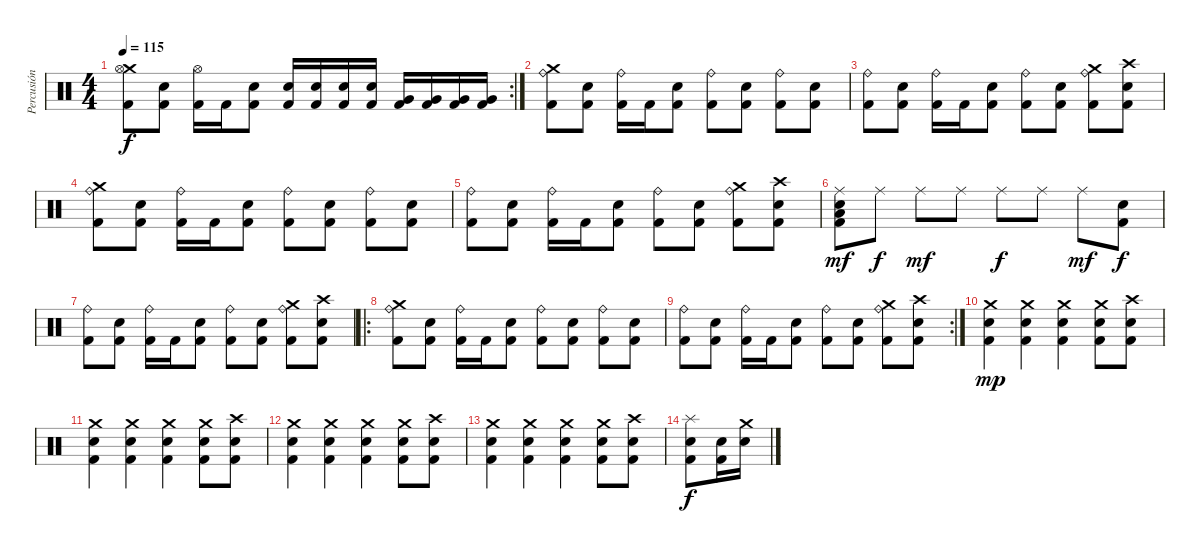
\track ("Percusión" "Percusión") {instrument percussion}
\staff {score}
\articulation defaults
\rc 2
\ts (4 4)
\tempo 115
\clef neutral
\ks c
("Crash medium (hit)" "Hi-Hat (open)" "Kick (hit) 2").8{dy f} ("Snare (hit) 2" "Kick (hit) 2").8 ("Hi-Hat (open)" "Kick (hit) 2").16 "Kick (hit) 2".16 ("Snare (hit) 2" "Kick (hit) 2").8 ("Snare (hit) 2" "Kick (hit) 2").16 ("Snare (hit) 2" "Kick (hit) 2").16 ("Snare (hit) 2" "Kick (hit) 2").16 ("Snare (hit) 2" "Kick (hit) 2").16 ("Very Low Tom (hit)" "Kick (hit) 2").16 ("Very Low Tom (hit)" "Kick (hit) 2").16 ("Very Low Tom (hit)" "Kick (hit) 2").16 ("Very Low Tom (hit)" "Kick (hit) 2").16 |
("Ride (bell)" "Crash medium (hit)" "Kick (hit) 2").8 ("Snare (hit) 2" "Kick (hit) 2").8 ("Ride (bell)" "Kick (hit) 2").16 "Kick (hit) 2".16 ("Snare (hit) 2" "Kick (hit) 2").8 ("Ride (bell)" "Kick (hit) 2").8 ("Snare (hit) 2" "Kick (hit) 2").8 ("Ride (bell)" "Kick (hit) 2").8 ("Snare (hit) 2" "Kick (hit) 2").8 |
("Ride (bell)" "Kick (hit) 2").8 ("Snare (hit) 2" "Kick (hit) 2").8 ("Ride (bell)" "Kick (hit) 2").16 "Kick (hit) 2".16 ("Snare (hit) 2" "Kick (hit) 2").8 ("Ride (bell)" "Kick (hit) 2").8 ("Snare (hit) 2" "Kick (hit) 2").8 ("Crash medium (hit)" "Ride (bell)" "Kick (hit) 2").8 ("Crash high (hit)" "Snare (hit) 2" "Kick (hit) 2").8 |
("Ride (bell)" "Crash medium (hit)" "Kick (hit) 2").8 ("Snare (hit) 2" "Kick (hit) 2").8 ("Ride (bell)" "Kick (hit) 2").16 "Kick (hit) 2".16 ("Snare (hit) 2" "Kick (hit) 2").8 ("Ride (bell)" "Kick (hit) 2").8 ("Snare (hit) 2" "Kick (hit) 2").8 ("Ride (bell)" "Kick (hit) 2").8 ("Snare (hit) 2" "Kick (hit) 2").8 |
("Ride (bell)" "Kick (hit) 2").8 ("Snare (hit) 2" "Kick (hit) 2").8 ("Ride (bell)" "Kick (hit) 2").16 "Kick (hit) 2".16 ("Snare (hit) 2" "Kick (hit) 2").8 ("Ride (bell)" "Kick (hit) 2").8 ("Snare (hit) 2" "Kick (hit) 2").8 ("Crash medium (hit)" "Ride (bell)" "Kick (hit) 2").8 ("Crash high (hit)" "Snare (hit) 2" "Kick (hit) 2").8 |
("Ride (middle)" "Snare (hit) 2" "Low Floor Tom (hit)" "Kick (hit) 2").8{dy mf} "Ride (middle)".8{dy f} "Ride (middle)".8{dy mf} "Ride (middle)".8 "Ride (middle)".8{dy f} "Ride (middle)".8 "Ride (middle)".8{dy mf} ("Snare (hit) 2" "Kick (hit) 2").8{dy f} |
("Ride (bell)" "Kick (hit) 2").8 ("Snare (hit) 2" "Kick (hit) 2").8 ("Ride (bell)" "Kick (hit) 2").16 "Kick (hit) 2".16 ("Snare (hit) 2" "Kick (hit) 2").8 ("Ride (bell)" "Kick (hit) 2").8 ("Snare (hit) 2" "Kick (hit) 2").8 ("Crash medium (hit)" "Ride (bell)" "Kick (hit) 2").8 ("Crash high (hit)" "Snare (hit) 2" "Kick (hit) 2").8 |
\ro
("Ride (bell)" "Crash medium (hit)" "Kick (hit) 2").8 ("Snare (hit) 2" "Kick (hit) 2").8 ("Ride (bell)" "Kick (hit) 2").16 "Kick (hit) 2".16 ("Snare (hit) 2" "Kick (hit) 2").8 ("Ride (bell)" "Kick (hit) 2").8 ("Snare (hit) 2" "Kick (hit) 2").8 ("Ride (bell)" "Kick (hit) 2").8 ("Snare (hit) 2" "Kick (hit) 2").8 |
\rc 2
("Ride (bell)" "Kick (hit) 2").8 ("Snare (hit) 2" "Kick (hit) 2").8 ("Ride (bell)" "Kick (hit) 2").16 "Kick (hit) 2".16 ("Snare (hit) 2" "Kick (hit) 2").8 ("Ride (bell)" "Kick (hit) 2").8 ("Snare (hit) 2" "Kick (hit) 2").8 ("Crash medium (hit)" "Ride (bell)" "Kick (hit) 2").8 ("Crash high (hit)" "Snare (hit) 2" "Kick (hit) 2").8 |
("Crash medium (hit)" "Snare (hit) 2" "Kick (hit) 2").4{dy mp} ("Crash medium (hit)" "Snare (hit) 2" "Kick (hit) 2").4 ("Crash medium (hit)" "Snare (hit) 2" "Kick (hit) 2").4 ("Crash medium (hit)" "Snare (hit) 2" "Kick (hit) 2").8 ("Crash high (hit)" "Snare (hit) 2" "Kick (hit) 2").8 |
("Crash medium (hit)" "Snare (hit) 2" "Kick (hit) 2").4 ("Crash medium (hit)" "Snare (hit) 2" "Kick (hit) 2").4 ("Crash medium (hit)" "Snare (hit) 2" "Kick (hit) 2").4 ("Crash medium (hit)" "Snare (hit) 2" "Kick (hit) 2").8 ("Crash high (hit)" "Snare (hit) 2" "Kick (hit) 2").8 |
("Crash medium (hit)" "Snare (hit) 2" "Kick (hit) 2").4 ("Crash medium (hit)" "Snare (hit) 2" "Kick (hit) 2").4 ("Crash medium (hit)" "Snare (hit) 2" "Kick (hit) 2").4 ("Crash medium (hit)" "Snare (hit) 2" "Kick (hit) 2").8 ("Crash high (hit)" "Snare (hit) 2" "Kick (hit) 2").8 |
("Crash medium (hit)" "Snare (hit) 2" "Kick (hit) 2").4 ("Crash medium (hit)" "Snare (hit) 2" "Kick (hit) 2").4 ("Crash medium (hit)" "Snare (hit) 2" "Kick (hit) 2").4 ("Crash medium (hit)" "Snare (hit) 2" "Kick (hit) 2").8 ("Crash high (hit)" "Snare (hit) 2" "Kick (hit) 2").8 |
("Splash (hit)" "Snare (hit) 2" "Kick (hit) 2").8{dy f} ("Snare (hit) 2" "Kick (hit) 2").16 ("Crash medium (hit)" "Snare (hit) 2").16
